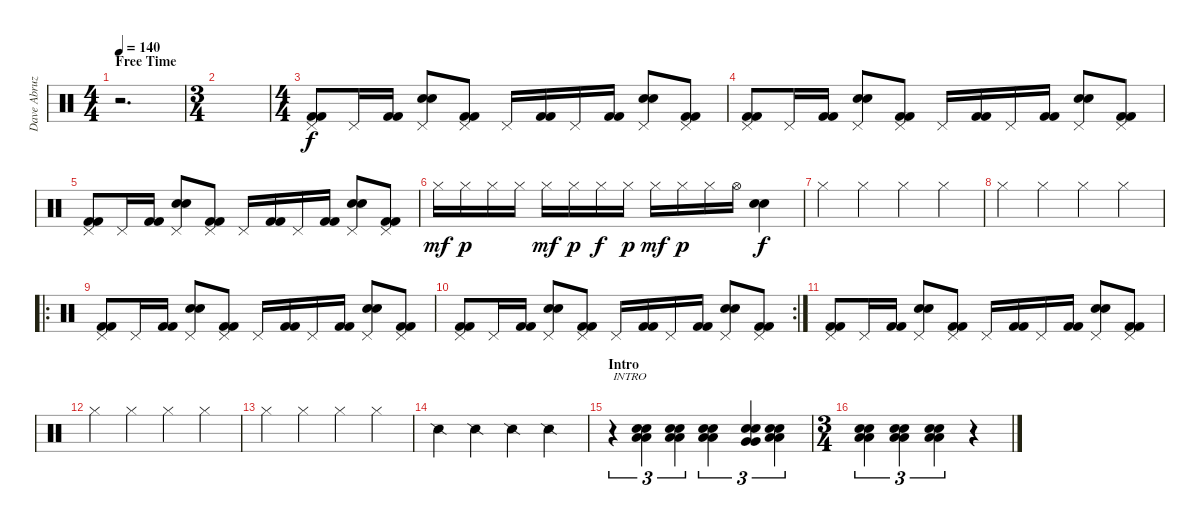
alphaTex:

\track ("Dave Abruzzese" "Dave Abruz") {instrument percussion}
\staff {score}
\articulation defaults
\ts (4 4)
\section ("" "Free Time")
\tempo 140
\clef neutral
\ks c
r.2{d dy f} |
\ts (3 4)
|
\ts (4 4)
("Kick (hit) 2" "Kick (hit) 2" "Pedal Hi-Hat (hit)").8 "Pedal Hi-Hat (hit)".16 ("Kick (hit) 2" "Kick (hit) 2").16 ("Electric Snare (hit)" "Electric Snare (hit)" "Pedal Hi-Hat (hit)").8 ("Kick (hit) 2" "Kick (hit) 2" "Pedal Hi-Hat (hit)").8 "Pedal Hi-Hat (hit)".16 ("Kick (hit) 2" "Kick (hit) 2").16 "Pedal Hi-Hat (hit)".16 ("Kick (hit) 2" "Kick (hit) 2").16 ("Electric Snare (hit)" "Electric Snare (hit)" "Pedal Hi-Hat (hit)").8 ("Kick (hit) 2" "Kick (hit) 2" "Pedal Hi-Hat (hit)").8 |
("Kick (hit) 2" "Kick (hit) 2" "Pedal Hi-Hat (hit)").8 "Pedal Hi-Hat (hit)".16 ("Kick (hit) 2" "Kick (hit) 2").16 ("Electric Snare (hit)" "Electric Snare (hit)" "Pedal Hi-Hat (hit)").8 ("Kick (hit) 2" "Kick (hit) 2" "Pedal Hi-Hat (hit)").8 "Pedal Hi-Hat (hit)".16 ("Kick (hit) 2" "Kick (hit) 2").16 "Pedal Hi-Hat (hit)".16 ("Kick (hit) 2" "Kick (hit) 2").16 ("Electric Snare (hit)" "Electric Snare (hit)" "Pedal Hi-Hat (hit)").8 ("Kick (hit) 2" "Kick (hit) 2" "Pedal Hi-Hat (hit)").8 |
("Kick (hit) 2" "Kick (hit) 2" "Pedal Hi-Hat (hit)").8 "Pedal Hi-Hat (hit)".16 ("Kick (hit) 2" "Kick (hit) 2").16 ("Electric Snare (hit)" "Electric Snare (hit)" "Pedal Hi-Hat (hit)").8 ("Kick (hit) 2" "Kick (hit) 2" "Pedal Hi-Hat (hit)").8 "Pedal Hi-Hat (hit)".16 ("Kick (hit) 2" "Kick (hit) 2").16 "Pedal Hi-Hat (hit)".16 ("Kick (hit) 2" "Kick (hit) 2").16 ("Electric Snare (hit)" "Electric Snare (hit)" "Pedal Hi-Hat (hit)").8 ("Kick (hit) 2" "Kick (hit) 2" "Pedal Hi-Hat (hit)").8 |
"Hi-Hat (closed)".16{dy mf} "Hi-Hat (closed)".16{dy p} "Hi-Hat (closed)".16 "Hi-Hat (closed)".16 "Hi-Hat (closed)".16{dy mf} "Hi-Hat (closed)".16{dy p} "Hi-Hat (closed)".16{dy f} "Hi-Hat (closed)".16{dy p} "Hi-Hat (closed)".16{dy mf} "Hi-Hat (closed)".16{dy p} "Hi-Hat (closed)".16 "Hi-Hat (open)".16 ("Electric Snare (hit)" "Electric Snare (hit)").4{dy f} |
"Hi-Hat (closed)".4 "Hi-Hat (closed)".4 "Hi-Hat (closed)".4 "Hi-Hat (closed)".4 |
"Hi-Hat (closed)".4 "Hi-Hat (closed)".4 "Hi-Hat (closed)".4 "Hi-Hat (closed)".4 |
\ro
("Kick (hit) 2" "Kick (hit) 2" "Pedal Hi-Hat (hit)").8 "Pedal Hi-Hat (hit)".16 ("Kick (hit) 2" "Kick (hit) 2").16 ("Electric Snare (hit)" "Electric Snare (hit)" "Pedal Hi-Hat (hit)").8 ("Kick (hit) 2" "Kick (hit) 2" "Pedal Hi-Hat (hit)").8 "Pedal Hi-Hat (hit)".16 ("Kick (hit) 2" "Kick (hit) 2").16 "Pedal Hi-Hat (hit)".16 ("Kick (hit) 2" "Kick (hit) 2").16 ("Electric Snare (hit)" "Electric Snare (hit)" "Pedal Hi-Hat (hit)").8 ("Kick (hit) 2" "Kick (hit) 2" "Pedal Hi-Hat (hit)").8 |
\rc 2
("Kick (hit) 2" "Kick (hit) 2" "Pedal Hi-Hat (hit)").8 "Pedal Hi-Hat (hit)".16 ("Kick (hit) 2" "Kick (hit) 2").16 ("Electric Snare (hit)" "Electric Snare (hit)" "Pedal Hi-Hat (hit)").8 ("Kick (hit) 2" "Kick (hit) 2" "Pedal Hi-Hat (hit)").8 "Pedal Hi-Hat (hit)".16 ("Kick (hit) 2" "Kick (hit) 2").16 "Pedal Hi-Hat (hit)".16 ("Kick (hit) 2" "Kick (hit) 2").16 ("Electric Snare (hit)" "Electric Snare (hit)" "Pedal Hi-Hat (hit)").8 ("Kick (hit) 2" "Kick (hit) 2" "Pedal Hi-Hat (hit)").8 |
("Kick (hit) 2" "Kick (hit) 2" "Pedal Hi-Hat (hit)").8 "Pedal Hi-Hat (hit)".16 ("Kick (hit) 2" "Kick (hit) 2").16 ("Electric Snare (hit)" "Electric Snare (hit)" "Pedal Hi-Hat (hit)").8 ("Kick (hit) 2" "Kick (hit) 2" "Pedal Hi-Hat (hit)").8 "Pedal Hi-Hat (hit)".16 ("Kick (hit) 2" "Kick (hit) 2").16 "Pedal Hi-Hat (hit)".16 ("Kick (hit) 2" "Kick (hit) 2").16 ("Electric Snare (hit)" "Electric Snare (hit)" "Pedal Hi-Hat (hit)").8 ("Kick (hit) 2" "Kick (hit) 2" "Pedal Hi-Hat (hit)").8 |
"Hi-Hat (closed)".4 "Hi-Hat (closed)".4 "Hi-Hat (closed)".4 "Hi-Hat (closed)".4 |
"Hi-Hat (closed)".4 "Hi-Hat (closed)".4 "Hi-Hat (closed)".4 "Hi-Hat (closed)".4 |
"Snare (side stick) 2".4 "Snare (side stick) 2".4 "Snare (side stick) 2".4 "Snare (side stick) 2".4 |
\section ("" "Intro")
r.4{tu (3 2) txt "INTRO"} ("Low Tom (hit)" "Low Tom (hit)" "Electric Snare (hit)" "Electric Snare (hit)").4{tu (3 2)} ("Low Tom (hit)" "Low Tom (hit)" "Electric Snare (hit)" "Electric Snare (hit)").4{tu (3 2)} ("Low Tom (hit)" "Low Tom (hit)" "Electric Snare (hit)" "Electric Snare (hit)").4{tu (3 2)} ("Very Low Tom (hit)" "Very Low Tom (hit)" "Electric Snare (hit)" "Electric Snare (hit)").4{tu (3 2)} ("Low Tom (hit)" "Low Tom (hit)" "Electric Snare (hit)" "Electric Snare (hit)").4{tu (3 2)} |
\ts (3 4)
("Low Tom (hit)" "Low Tom (hit)" "Electric Snare (hit)" "Electric Snare (hit)").4{tu (3 2)} ("Low Tom (hit)" "Low Tom (hit)" "Electric Snare (hit)" "Electric Snare (hit)").4{tu (3 2)} ("Low Tom (hit)" "Low Tom (hit)" "Electric Snare (hit)" "Electric Snare (hit)").4{tu (3 2)} r.4
